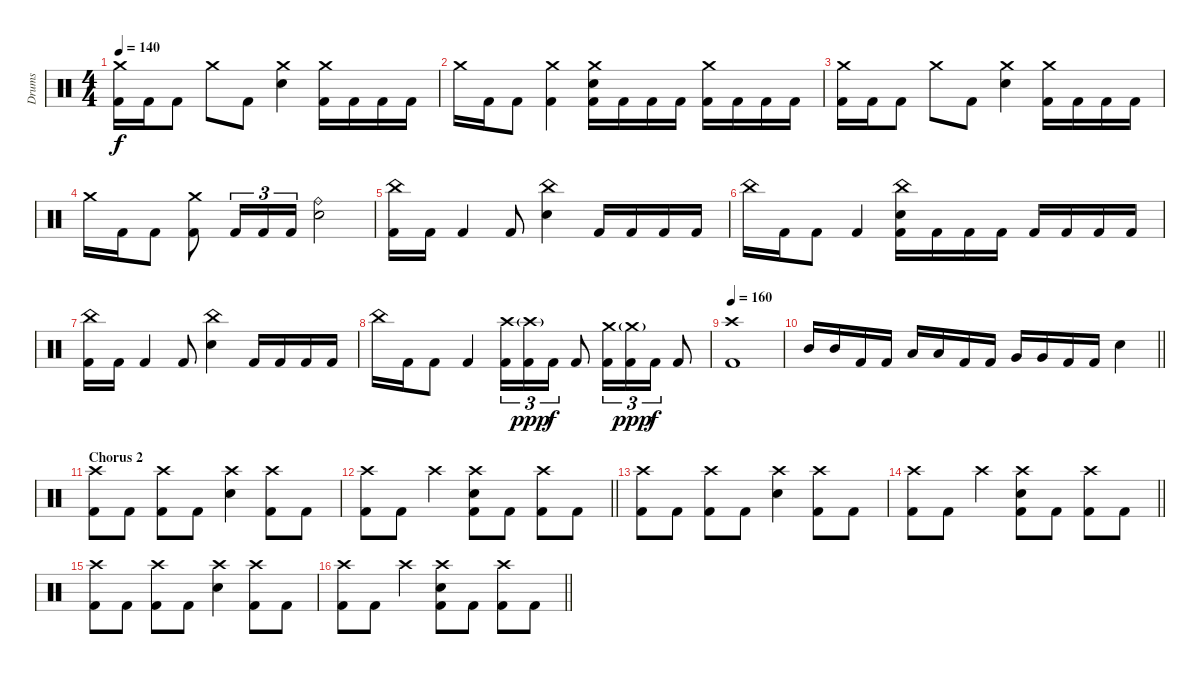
\track ("Drums" "Drums") {instrument percussion}
\staff {score}
\articulation defaults
\ts (4 4)
\tempo 140
\clef neutral
\ks c
("Crash medium (hit)" "Kick (hit) 2").16{dy f} "Kick (hit) 2".16 "Kick (hit) 2".8 "Crash medium (hit)".8 "Kick (hit) 2".8 ("Crash medium (hit)" "Electric Snare (hit)").4 ("Crash medium (hit)" "Kick (hit) 2").16 "Kick (hit) 2".16 "Kick (hit) 2".16 "Kick (hit) 2".16 |
"Crash medium (hit)".16 "Kick (hit) 2".16 "Kick (hit) 2".8 ("Crash medium (hit)" "Kick (hit) 2").4 ("Crash medium (hit)" "Electric Snare (hit)" "Kick (hit) 2").16 "Kick (hit) 2".16 "Kick (hit) 2".16 "Kick (hit) 2".16 ("Crash medium (hit)" "Kick (hit) 2").16 "Kick (hit) 2".16 "Kick (hit) 2".16 "Kick (hit) 2".16 |
("Crash medium (hit)" "Kick (hit) 2").16 "Kick (hit) 2".16 "Kick (hit) 2".8 "Crash medium (hit)".8 "Kick (hit) 2".8 ("Crash medium (hit)" "Electric Snare (hit)").4 ("Crash medium (hit)" "Kick (hit) 2").16 "Kick (hit) 2".16 "Kick (hit) 2".16 "Kick (hit) 2".16 |
"Crash medium (hit)".16 "Kick (hit) 2".16 "Kick (hit) 2".8 ("Crash medium (hit)" "Kick (hit) 2").8 "Kick (hit) 2".16{tu (3 2)} "Kick (hit) 2".16{tu (3 2)} "Kick (hit) 2".16{tu (3 2)} ("Ride (bell)" "Electric Snare (hit)").2 |
("China (hit)" "Kick (hit) 2").16 "Kick (hit) 2".16 "Kick (hit) 2".4 "Kick (hit) 2".8 ("China (hit)" "Electric Snare (hit)").4 "Kick (hit) 2".16 "Kick (hit) 2".16 "Kick (hit) 2".16 "Kick (hit) 2".16 |
"China (hit)".16 "Kick (hit) 2".16 "Kick (hit) 2".8 "Kick (hit) 2".4 ("China (hit)" "Electric Snare (hit)" "Kick (hit) 2").16 "Kick (hit) 2".16 "Kick (hit) 2".16 "Kick (hit) 2".16 "Kick (hit) 2".16 "Kick (hit) 2".16 "Kick (hit) 2".16 "Kick (hit) 2".16 |
("China (hit)" "Kick (hit) 2").16 "Kick (hit) 2".16 "Kick (hit) 2".4 "Kick (hit) 2".8 ("China (hit)" "Electric Snare (hit)").4 "Kick (hit) 2".16 "Kick (hit) 2".16 "Kick (hit) 2".16 "Kick (hit) 2".16 |
"China (hit)".16 "Kick (hit) 2".16 "Kick (hit) 2".8 "Kick (hit) 2".4 ("Crash high (hit)" "Kick (hit) 2").16{tu (3 2) balance 0} ("Crash high (hit)"{g} "Kick (hit) 2").16{tu (3 2) dy ppp} "Kick (hit) 2".16{tu (3 2) dy f} "Kick (hit) 2".8 ("Crash medium (hit)" "Kick (hit) 2").16{tu (3 2) balance 16} ("Crash medium (hit)"{g} "Kick (hit) 2").16{tu (3 2) dy ppp} "Kick (hit) 2".16{tu (3 2) dy f} "Kick (hit) 2".8 |
\tempo 160
("Crash high (hit)" "Kick (hit) 2").1{balance 8} |
\barLineRight lightlight "Mid Tom (hit)".16 "Mid Tom (hit)".16 "Kick (hit) 2".16 "Kick (hit) 2".16 "Low Tom (hit)".16 "Low Tom (hit)".16 "Kick (hit) 2".16 "Kick (hit) 2".16 "Very Low Tom (hit)".16 "Very Low Tom (hit)".16 "Kick (hit) 2".16 "Kick (hit) 2".16 "Electric Snare (hit)".4
|
\section ("" "Chorus 2")
("Crash high (hit)" "Kick (hit) 2").8 "Kick (hit) 2".8 ("Crash high (hit)" "Kick (hit) 2").8 "Kick (hit) 2".8 ("Crash high (hit)" "Electric Snare (hit)").4 ("Crash high (hit)" "Kick (hit) 2").8 "Kick (hit) 2".8 |
\barLineRight lightlight
("Crash high (hit)" "Kick (hit) 2").8 "Kick (hit) 2".8 "Crash high (hit)".4 ("Crash high (hit)" "Electric Snare (hit)" "Kick (hit) 2").8 "Kick (hit) 2".8 ("Crash high (hit)" "Kick (hit) 2").8 "Kick (hit) 2".8 |
("Crash high (hit)" "Kick (hit) 2").8 "Kick (hit) 2".8 ("Crash high (hit)" "Kick (hit) 2").8 "Kick (hit) 2".8 ("Crash high (hit)" "Electric Snare (hit)").4 ("Crash high (hit)" "Kick (hit) 2").8 "Kick (hit) 2".8 |
\barLineRight lightlight
("Crash high (hit)" "Kick (hit) 2").8 "Kick (hit) 2".8 "Crash high (hit)".4 ("Crash high (hit)" "Electric Snare (hit)" "Kick (hit) 2").8 "Kick (hit) 2".8 ("Crash high (hit)" "Kick (hit) 2").8 "Kick (hit) 2".8 |
("Crash high (hit)" "Kick (hit) 2").8 "Kick (hit) 2".8 ("Crash high (hit)" "Kick (hit) 2").8 "Kick (hit) 2".8 ("Crash high (hit)" "Electric Snare (hit)").4 ("Crash high (hit)" "Kick (hit) 2").8 "Kick (hit) 2".8 |
\barLineRight lightlight
("Crash high (hit)" "Kick (hit) 2").8 "Kick (hit) 2".8 "Crash high (hit)".4 ("Crash high (hit)" "Electric Snare (hit)" "Kick (hit) 2").8 "Kick (hit) 2".8 ("Crash high (hit)" "Kick (hit) 2").8 "Kick (hit) 2".8
